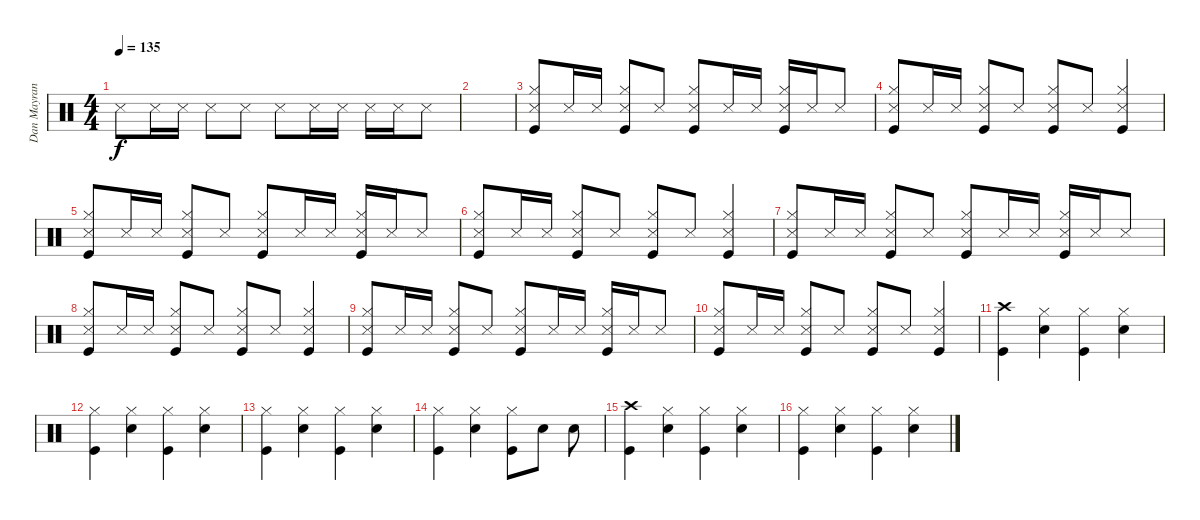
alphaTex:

\track ("Dan Mayrand - Drum" "Dan Mayran") {instrument percussion}
\staff {score}
\articulation defaults
\ts (4 4)
\tempo 135
\clef neutral
\ks c "Snare (side stick) 3".8{dy f} "Snare (side stick) 3".16 "Snare (side stick) 3".16 "Snare (side stick) 3".8 "Snare (side stick) 3".8 "Snare (side stick) 3".8 "Snare (side stick) 3".16 "Snare (side stick) 3".16 "Snare (side stick) 3".16 "Snare (side stick) 3".16 "Snare (side stick) 3".8
|
|
("Hi-Hat (closed)" "Snare (side stick) 3" "Kick (hit)").8 "Snare (side stick) 3".16 "Snare (side stick) 3".16 ("Hi-Hat (closed)" "Snare (side stick) 3" "Kick (hit)").8 "Snare (side stick) 3".8 ("Hi-Hat (closed)" "Snare (side stick) 3" "Kick (hit)").8 "Snare (side stick) 3".16 "Snare (side stick) 3".16 ("Hi-Hat (closed)" "Snare (side stick) 3" "Kick (hit)").16 "Snare (side stick) 3".16 "Snare (side stick) 3".8 |
("Hi-Hat (closed)" "Snare (side stick) 3" "Kick (hit)").8 "Snare (side stick) 3".16 "Snare (side stick) 3".16 ("Hi-Hat (closed)" "Snare (side stick) 3" "Kick (hit)").8 "Snare (side stick) 3".8 ("Hi-Hat (closed)" "Snare (side stick) 3" "Kick (hit)").8 "Snare (side stick) 3".8 ("Hi-Hat (closed)" "Snare (side stick) 3" "Kick (hit)").4 |
("Hi-Hat (closed)" "Snare (side stick) 3" "Kick (hit)").8 "Snare (side stick) 3".16 "Snare (side stick) 3".16 ("Hi-Hat (closed)" "Snare (side stick) 3" "Kick (hit)").8 "Snare (side stick) 3".8 ("Hi-Hat (closed)" "Snare (side stick) 3" "Kick (hit)").8 "Snare (side stick) 3".16 "Snare (side stick) 3".16 ("Hi-Hat (closed)" "Snare (side stick) 3" "Kick (hit)").16 "Snare (side stick) 3".16 "Snare (side stick) 3".8 |
("Hi-Hat (closed)" "Snare (side stick) 3" "Kick (hit)").8 "Snare (side stick) 3".16 "Snare (side stick) 3".16 ("Hi-Hat (closed)" "Snare (side stick) 3" "Kick (hit)").8 "Snare (side stick) 3".8 ("Hi-Hat (closed)" "Snare (side stick) 3" "Kick (hit)").8 "Snare (side stick) 3".8 ("Hi-Hat (closed)" "Snare (side stick) 3" "Kick (hit)").4 |
("Hi-Hat (closed)" "Snare (side stick) 3" "Kick (hit)").8 "Snare (side stick) 3".16 "Snare (side stick) 3".16 ("Hi-Hat (closed)" "Snare (side stick) 3" "Kick (hit)").8 "Snare (side stick) 3".8 ("Hi-Hat (closed)" "Snare (side stick) 3" "Kick (hit)").8 "Snare (side stick) 3".16 "Snare (side stick) 3".16 ("Hi-Hat (closed)" "Snare (side stick) 3" "Kick (hit)").16 "Snare (side stick) 3".16 "Snare (side stick) 3".8 |
("Hi-Hat (closed)" "Snare (side stick) 3" "Kick (hit)").8 "Snare (side stick) 3".16 "Snare (side stick) 3".16 ("Hi-Hat (closed)" "Snare (side stick) 3" "Kick (hit)").8 "Snare (side stick) 3".8 ("Hi-Hat (closed)" "Snare (side stick) 3" "Kick (hit)").8 "Snare (side stick) 3".8 ("Hi-Hat (closed)" "Snare (side stick) 3" "Kick (hit)").4 |
("Hi-Hat (closed)" "Snare (side stick) 3" "Kick (hit)").8 "Snare (side stick) 3".16 "Snare (side stick) 3".16 ("Hi-Hat (closed)" "Snare (side stick) 3" "Kick (hit)").8 "Snare (side stick) 3".8 ("Hi-Hat (closed)" "Snare (side stick) 3" "Kick (hit)").8 "Snare (side stick) 3".16 "Snare (side stick) 3".16 ("Hi-Hat (closed)" "Snare (side stick) 3" "Kick (hit)").16 "Snare (side stick) 3".16 "Snare (side stick) 3".8 |
("Hi-Hat (closed)" "Snare (side stick) 3" "Kick (hit)").8 "Snare (side stick) 3".16 "Snare (side stick) 3".16 ("Hi-Hat (closed)" "Snare (side stick) 3" "Kick (hit)").8 "Snare (side stick) 3".8 ("Hi-Hat (closed)" "Snare (side stick) 3" "Kick (hit)").8 "Snare (side stick) 3".8 ("Hi-Hat (closed)" "Snare (side stick) 3" "Kick (hit)").4 |
("Crash high (hit)" "Kick (hit)").4 ("Hi-Hat (closed)" "Snare (hit) 2").4 ("Hi-Hat (closed)" "Kick (hit)").4 ("Hi-Hat (closed)" "Snare (hit) 2").4 |
("Hi-Hat (closed)" "Kick (hit)").4 ("Hi-Hat (closed)" "Snare (hit) 2").4 ("Hi-Hat (closed)" "Kick (hit)").4 ("Hi-Hat (closed)" "Snare (hit) 2").4 |
("Hi-Hat (closed)" "Kick (hit)").4 ("Hi-Hat (closed)" "Snare (hit) 2").4 ("Hi-Hat (closed)" "Kick (hit)").4 ("Hi-Hat (closed)" "Snare (hit) 2").4 |
("Hi-Hat (closed)" "Kick (hit)").4 ("Hi-Hat (closed)" "Snare (hit) 2").4 ("Hi-Hat (closed)" "Kick (hit)").8 "Snare (hit) 2".8 "Snare (hit) 2".8 |
("Crash high (hit)" "Kick (hit)").4 ("Hi-Hat (closed)" "Snare (hit) 2").4 ("Hi-Hat (closed)" "Kick (hit)").4 ("Hi-Hat (closed)" "Snare (hit) 2").4 |
("Hi-Hat (closed)" "Kick (hit)").4 ("Hi-Hat (closed)" "Snare (hit) 2").4 ("Hi-Hat (closed)" "Kick (hit)").4 ("Hi-Hat (closed)" "Snare (hit) 2").4
